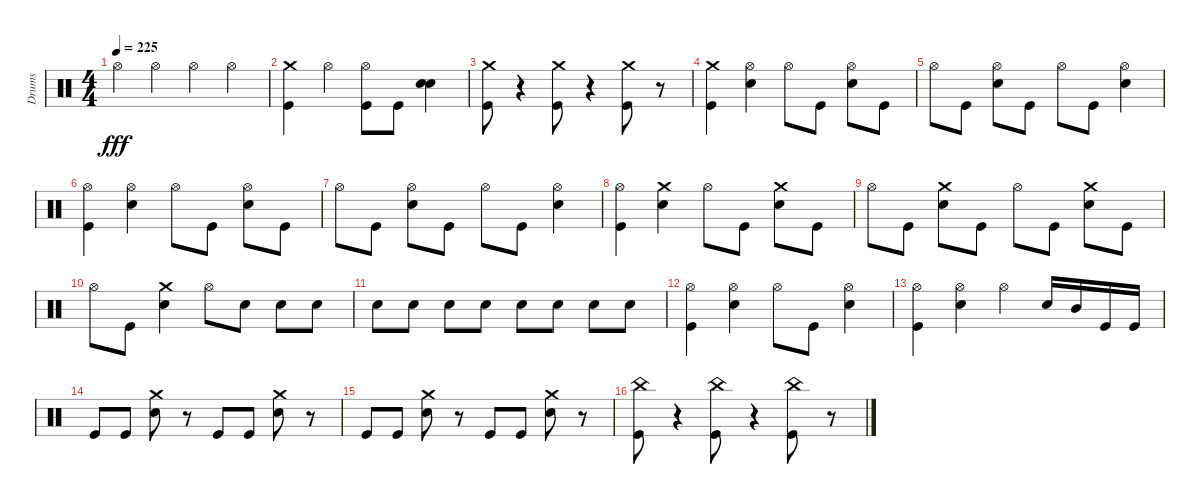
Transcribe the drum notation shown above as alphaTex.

\track ("Drums" "Drums") {instrument percussion}
\staff {score}
\articulation defaults
\ts (4 4)
\tempo 225
\clef neutral
\ks c "Hi-Hat (open)".4{dy fff} "Hi-Hat (open)".4 "Hi-Hat (open)".4 "Hi-Hat (open)".4
|
("Kick (hit)" "Crash medium (hit)").4 "Hi-Hat (open)".4 ("Kick (hit)" "Hi-Hat (open)").8 "Kick (hit)".8 ("Snare (hit) 2" "Snare (hit) 2").4 |
("Crash medium (hit)" "Kick (hit)").8 r.4 ("Crash medium (hit)" "Kick (hit)").8 r.4 ("Kick (hit)" "Crash medium (hit)").8 r.8 |
("Kick (hit)" "Crash medium (hit)").4 ("Snare (hit) 2" "Hi-Hat (open)").4 "Hi-Hat (open)".8 "Kick (hit)".8 ("Snare (hit) 2" "Hi-Hat (open)").8 "Kick (hit)".8 |
"Hi-Hat (open)".8 "Kick (hit)".8 ("Snare (hit) 2" "Hi-Hat (open)").8 "Kick (hit)".8 "Hi-Hat (open)".8 "Kick (hit)".8 ("Snare (hit) 2" "Hi-Hat (open)").4 |
("Kick (hit)" "Hi-Hat (open)").4 ("Snare (hit) 2" "Hi-Hat (open)").4 "Hi-Hat (open)".8 "Kick (hit)".8 ("Snare (hit) 2" "Hi-Hat (open)").8 "Kick (hit)".8 |
"Hi-Hat (open)".8 "Kick (hit)".8 ("Snare (hit) 2" "Hi-Hat (open)").8 "Kick (hit)".8 "Hi-Hat (open)".8 "Kick (hit)".8 ("Snare (hit) 2" "Hi-Hat (open)").4 |
("Kick (hit)" "Hi-Hat (open)").4 ("Crash medium (hit)" "Snare (hit) 2").4 "Hi-Hat (open)".8 "Kick (hit)".8 ("Crash medium (hit)" "Snare (hit) 2").8 "Kick (hit)".8 |
"Hi-Hat (open)".8 "Kick (hit)".8 ("Crash medium (hit)" "Snare (hit) 2").8 "Kick (hit)".8 "Hi-Hat (open)".8 "Kick (hit)".8 ("Crash medium (hit)" "Snare (hit) 2").8 "Kick (hit)".8 |
"Hi-Hat (open)".8 "Kick (hit)".8 ("Crash medium (hit)" "Snare (hit) 2").4 "Hi-Hat (open)".8 "Snare (hit) 2".8 "Snare (hit) 2".8 "Snare (hit) 2".8 |
"Snare (hit) 2".8 "Snare (hit) 2".8 "Snare (hit) 2".8 "Snare (hit) 2".8 "Snare (hit) 2".8 "Snare (hit) 2".8 "Snare (hit) 2".8 "Snare (hit) 2".8 |
("Kick (hit)" "Hi-Hat (open)").4 ("Snare (hit) 2" "Hi-Hat (open)").4 "Hi-Hat (open)".8 "Kick (hit)".8 ("Snare (hit) 2" "Hi-Hat (open)").4 |
("Kick (hit)" "Hi-Hat (open)").4 ("Snare (hit) 2" "Hi-Hat (open)").4 "Hi-Hat (open)".4 "Snare (hit) 2".16 "Mid Tom (hit)".16 "Kick (hit)".16 "Kick (hit)".16 |
"Kick (hit)".8 "Kick (hit)".8 ("Crash medium (hit)" "Snare (hit) 2").8 r.8 "Kick (hit)".8 "Kick (hit)".8 ("Crash medium (hit)" "Snare (hit) 2").8 r.8 |
"Kick (hit)".8 "Kick (hit)".8 ("Crash medium (hit)" "Snare (hit) 2").8 r.8 "Kick (hit)".8 "Kick (hit)".8 ("Crash medium (hit)" "Snare (hit) 2").8 r.8 |
("China (hit)" "Kick (hit)").8 r.4 ("China (hit)" "Kick (hit)").8 r.4 ("Kick (hit)" "China (hit)").8 r.8
